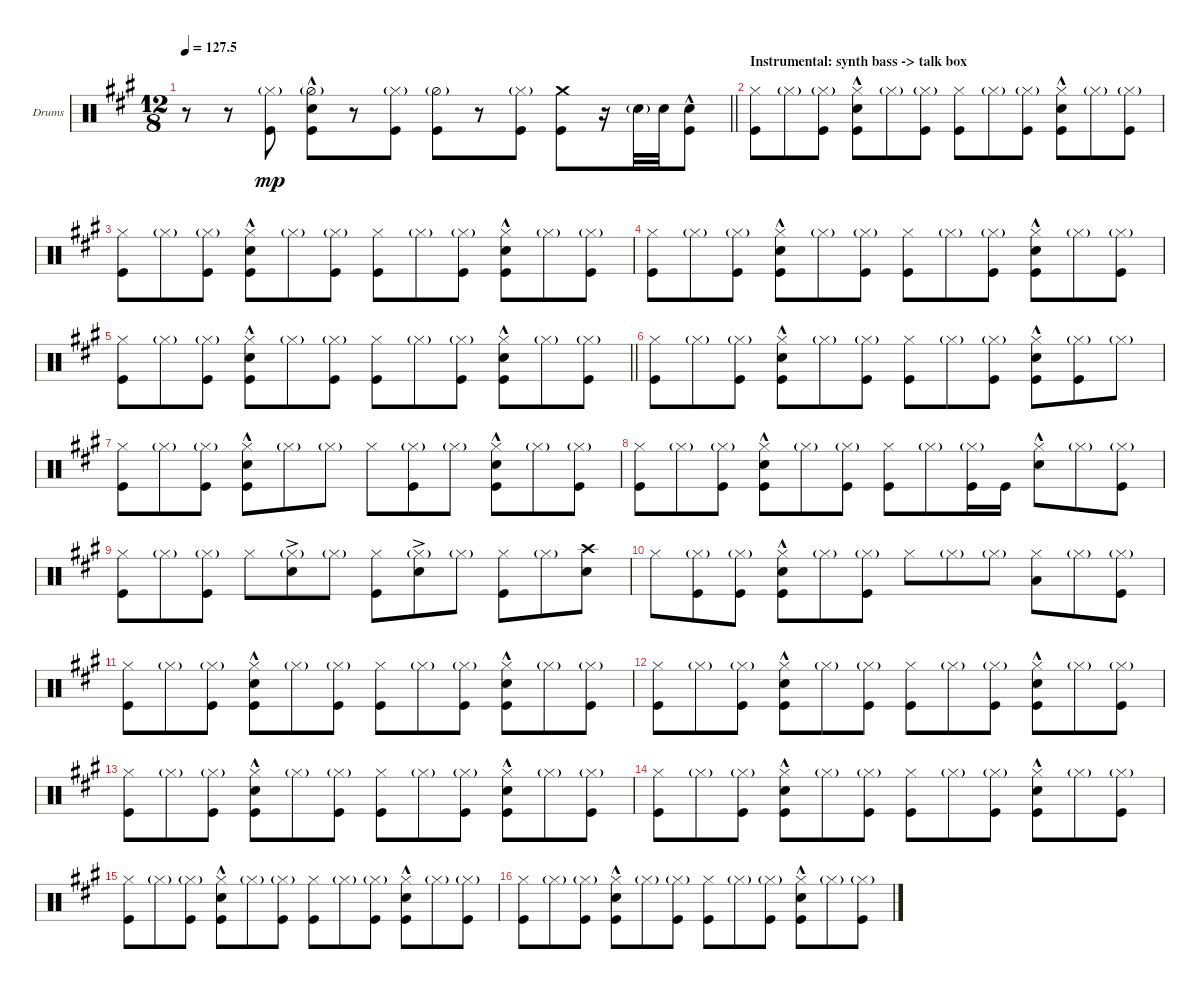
\bracketExtendMode groupsimilarinstruments
\firstSystemTrackNameOrientation horizontal
\otherSystemsTrackNameOrientation horizontal
\track ("Drumkit" "Drums") {instrument percussion}
\staff {score}
\articulation defaults
\ts (12 8)
\tempo
127.5
\accidentals auto
\clef neutral
\ottava regular
\simile none
\scale
0.333333
\barLineRight lightlight
\ks a
r.8{dy mp} r.8 ("Kick (hit)" "Hi-Hat (closed)"{g}).8 ("Kick (hit)" "Hi-Hat (half)"{g} "Snare (hit) 2"{hac}).8 r.8 ("Kick (hit)" "Hi-Hat (closed)"{g}).8 ("Kick (hit)" "Hi-Hat (half)"{g}).8 r.8 ("Kick (hit)" "Hi-Hat (closed)"{g}).8 ("Kick (hit)" "Crash medium (hit)").8 r.16 "Snare (hit) 2"{g}.32 "Snare (hit) 2".32 ("Kick (hit)" "Snare (hit) 2"{hac}).8 |
\section ("" "Instrumental: synth bass -> talk box")
\scale
0.333333 ("Hi-Hat (closed)" "Kick (hit)").8 "Hi-Hat (closed)"{g}.8 ("Hi-Hat (closed)"{g} "Kick (hit)").8 ("Hi-Hat (closed)" "Kick (hit)" "Snare (hit) 2"{hac}).8 "Hi-Hat (closed)"{g}.8 ("Hi-Hat (closed)"{g} "Kick (hit)").8 ("Hi-Hat (closed)" "Kick (hit)").8 "Hi-Hat (closed)"{g}.8 ("Hi-Hat (closed)"{g} "Kick (hit)").8 ("Hi-Hat (closed)" "Kick (hit)" "Snare (hit) 2"{hac}).8 "Hi-Hat (closed)"{g}.8 ("Hi-Hat (closed)"{g} "Kick (hit)").8 |
\scale
0.333333 ("Hi-Hat (closed)" "Kick (hit)").8 "Hi-Hat (closed)"{g}.8 ("Hi-Hat (closed)"{g} "Kick (hit)").8 ("Hi-Hat (closed)" "Kick (hit)" "Snare (hit) 2"{hac}).8 "Hi-Hat (closed)"{g}.8 ("Hi-Hat (closed)"{g} "Kick (hit)").8 ("Hi-Hat (closed)" "Kick (hit)").8 "Hi-Hat (closed)"{g}.8 ("Hi-Hat (closed)"{g} "Kick (hit)").8 ("Hi-Hat (closed)" "Kick (hit)" "Snare (hit) 2"{hac}).8 "Hi-Hat (closed)"{g}.8 ("Hi-Hat (closed)"{g} "Kick (hit)").8 |
\scale
0.333333 ("Hi-Hat (closed)" "Kick (hit)").8 "Hi-Hat (closed)"{g}.8 ("Hi-Hat (closed)"{g} "Kick (hit)").8 ("Hi-Hat (closed)" "Kick (hit)" "Snare (hit) 2"{hac}).8 "Hi-Hat (closed)"{g}.8 ("Hi-Hat (closed)"{g} "Kick (hit)").8 ("Hi-Hat (closed)" "Kick (hit)").8 "Hi-Hat (closed)"{g}.8 ("Hi-Hat (closed)"{g} "Kick (hit)").8 ("Hi-Hat (closed)" "Kick (hit)" "Snare (hit) 2"{hac}).8 "Hi-Hat (closed)"{g}.8 ("Hi-Hat (closed)"{g} "Kick (hit)").8 |
\scale
0.333333
\barLineRight lightlight
("Hi-Hat (closed)" "Kick (hit)").8 "Hi-Hat (closed)"{g}.8 ("Hi-Hat (closed)"{g} "Kick (hit)").8 ("Hi-Hat (closed)" "Kick (hit)" "Snare (hit) 2"{hac}).8 "Hi-Hat (closed)"{g}.8 ("Hi-Hat (closed)"{g} "Kick (hit)").8 ("Hi-Hat (closed)" "Kick (hit)").8 "Hi-Hat (closed)"{g}.8 ("Hi-Hat (closed)"{g} "Kick (hit)").8 ("Hi-Hat (closed)" "Kick (hit)" "Snare (hit) 2"{hac}).8 "Hi-Hat (closed)"{g}.8 ("Hi-Hat (closed)"{g} "Kick (hit)").8 |
\scale
0.333333 ("Hi-Hat (closed)" "Kick (hit)").8 "Hi-Hat (closed)"{g}.8 ("Hi-Hat (closed)"{g} "Kick (hit)").8 ("Hi-Hat (closed)" "Kick (hit)" "Snare (hit) 2"{hac}).8 "Hi-Hat (closed)"{g}.8 ("Hi-Hat (closed)"{g} "Kick (hit)").8 ("Hi-Hat (closed)" "Kick (hit)").8 "Hi-Hat (closed)"{g}.8 ("Hi-Hat (closed)"{g} "Kick (hit)").8 ("Hi-Hat (closed)" "Kick (hit)" "Snare (hit) 2"{hac}).8 ("Hi-Hat (closed)"{g} "Kick (hit)").8 "Hi-Hat (closed)"{g}.8 |
\scale
0.333333 ("Hi-Hat (closed)" "Kick (hit)").8 "Hi-Hat (closed)"{g}.8 ("Hi-Hat (closed)"{g} "Kick (hit)").8 ("Hi-Hat (closed)" "Kick (hit)" "Snare (hit) 2"{hac}).8 "Hi-Hat (closed)"{g}.8 "Hi-Hat (closed)"{g}.8 "Hi-Hat (closed)".8 ("Hi-Hat (closed)"{g} "Kick (hit)").8 "Hi-Hat (closed)"{g}.8 ("Hi-Hat (closed)" "Kick (hit)" "Snare (hit) 2"{hac}).8 "Hi-Hat (closed)"{g}.8 ("Hi-Hat (closed)"{g} "Kick (hit)").8 |
\scale
0.333333 ("Hi-Hat (closed)" "Kick (hit)").8 "Hi-Hat (closed)"{g}.8 ("Hi-Hat (closed)"{g} "Kick (hit)").8 ("Hi-Hat (closed)" "Kick (hit)" "Snare (hit) 2"{hac}).8 "Hi-Hat (closed)"{g}.8 ("Hi-Hat (closed)"{g} "Kick (hit)").8 ("Hi-Hat (closed)" "Kick (hit)").8 "Hi-Hat (closed)"{g}.8 ("Hi-Hat (closed)"{g} "Kick (hit)").16 "Kick (hit)".16 ("Hi-Hat (closed)" "Snare (hit) 2"{hac}).8 "Hi-Hat (closed)"{g}.8 ("Hi-Hat (closed)"{g} "Kick (hit)").8 |
\scale
0.333333 ("Hi-Hat (closed)" "Kick (hit)").8 "Hi-Hat (closed)"{g}.8 ("Hi-Hat (closed)"{g} "Kick (hit)").8 "Hi-Hat (closed)".8 ("Hi-Hat (closed)"{g} "Snare (hit) 2"{ac}).8 "Hi-Hat (closed)"{g}.8 ("Hi-Hat (closed)" "Kick (hit)").8 ("Hi-Hat (closed)"{g} "Snare (hit) 2"{ac}).8 "Hi-Hat (closed)"{g}.8 ("Hi-Hat (closed)" "Kick (hit)").8 "Hi-Hat (closed)"{g}.8 ("Snare (hit) 2" "Crash high (hit)").8 |
\scale
0.333333 "Hi-Hat (closed)".8 ("Hi-Hat (closed)"{g} "Kick (hit)").8 ("Hi-Hat (closed)"{g} "Kick (hit)").8 ("Hi-Hat (closed)" "Kick (hit)" "Snare (hit) 2"{hac}).8 "Hi-Hat (closed)"{g}.8 ("Hi-Hat (closed)"{g} "Kick (hit)").8 "Hi-Hat (closed)".8 "Hi-Hat (closed)"{g}.8 "Hi-Hat (closed)"{g}.8 ("Hi-Hat (closed)" "Low Tom (hit)").8 "Hi-Hat (closed)"{g}.8 ("Hi-Hat (closed)"{g} "Kick (hit)").8 |
\scale
0.333333 ("Hi-Hat (closed)" "Kick (hit)").8 "Hi-Hat (closed)"{g}.8 ("Hi-Hat (closed)"{g} "Kick (hit)").8 ("Hi-Hat (closed)" "Kick (hit)" "Snare (hit) 2"{hac}).8 "Hi-Hat (closed)"{g}.8 ("Hi-Hat (closed)"{g} "Kick (hit)").8 ("Hi-Hat (closed)" "Kick (hit)").8 "Hi-Hat (closed)"{g}.8 ("Hi-Hat (closed)"{g} "Kick (hit)").8 ("Hi-Hat (closed)" "Kick (hit)" "Snare (hit) 2"{hac}).8 "Hi-Hat (closed)"{g}.8 ("Hi-Hat (closed)"{g} "Kick (hit)").8 |
\scale
0.333333 ("Hi-Hat (closed)" "Kick (hit)").8 "Hi-Hat (closed)"{g}.8 ("Hi-Hat (closed)"{g} "Kick (hit)").8 ("Hi-Hat (closed)" "Kick (hit)" "Snare (hit) 2"{hac}).8 "Hi-Hat (closed)"{g}.8 ("Hi-Hat (closed)"{g} "Kick (hit)").8 ("Hi-Hat (closed)" "Kick (hit)").8 "Hi-Hat (closed)"{g}.8 ("Hi-Hat (closed)"{g} "Kick (hit)").8 ("Hi-Hat (closed)" "Kick (hit)" "Snare (hit) 2"{hac}).8 "Hi-Hat (closed)"{g}.8 ("Hi-Hat (closed)"{g} "Kick (hit)").8 |
\scale
0.333333 ("Hi-Hat (closed)" "Kick (hit)").8 "Hi-Hat (closed)"{g}.8 ("Hi-Hat (closed)"{g} "Kick (hit)").8 ("Hi-Hat (closed)" "Kick (hit)" "Snare (hit) 2"{hac}).8 "Hi-Hat (closed)"{g}.8 ("Hi-Hat (closed)"{g} "Kick (hit)").8 ("Hi-Hat (closed)" "Kick (hit)").8 "Hi-Hat (closed)"{g}.8 ("Hi-Hat (closed)"{g} "Kick (hit)").8 ("Hi-Hat (closed)" "Kick (hit)" "Snare (hit) 2"{hac}).8 "Hi-Hat (closed)"{g}.8 ("Hi-Hat (closed)"{g} "Kick (hit)").8 |
\scale
0.333333 ("Hi-Hat (closed)" "Kick (hit)").8 "Hi-Hat (closed)"{g}.8 ("Hi-Hat (closed)"{g} "Kick (hit)").8 ("Hi-Hat (closed)" "Kick (hit)" "Snare (hit) 2"{hac}).8 "Hi-Hat (closed)"{g}.8 ("Hi-Hat (closed)"{g} "Kick (hit)").8 ("Hi-Hat (closed)" "Kick (hit)").8 "Hi-Hat (closed)"{g}.8 ("Hi-Hat (closed)"{g} "Kick (hit)").8 ("Hi-Hat (closed)" "Kick (hit)" "Snare (hit) 2"{hac}).8 "Hi-Hat (closed)"{g}.8 ("Hi-Hat (closed)"{g} "Kick (hit)").8 |
\scale
0.333333 ("Hi-Hat (closed)" "Kick (hit)").8 "Hi-Hat (closed)"{g}.8 ("Hi-Hat (closed)"{g} "Kick (hit)").8 ("Hi-Hat (closed)" "Kick (hit)" "Snare (hit) 2"{hac}).8 "Hi-Hat (closed)"{g}.8 ("Hi-Hat (closed)"{g} "Kick (hit)").8 ("Hi-Hat (closed)" "Kick (hit)").8 "Hi-Hat (closed)"{g}.8 ("Hi-Hat (closed)"{g} "Kick (hit)").8 ("Hi-Hat (closed)" "Kick (hit)" "Snare (hit) 2"{hac}).8 "Hi-Hat (closed)"{g}.8 ("Hi-Hat (closed)"{g} "Kick (hit)").8 |
\scale
0.333333 ("Hi-Hat (closed)" "Kick (hit)").8 "Hi-Hat (closed)"{g}.8 ("Hi-Hat (closed)"{g} "Kick (hit)").8 ("Hi-Hat (closed)" "Kick (hit)" "Snare (hit) 2"{hac}).8 "Hi-Hat (closed)"{g}.8 ("Hi-Hat (closed)"{g} "Kick (hit)").8 ("Hi-Hat (closed)" "Kick (hit)").8 "Hi-Hat (closed)"{g}.8 ("Hi-Hat (closed)"{g} "Kick (hit)").8 ("Hi-Hat (closed)" "Kick (hit)" "Snare (hit) 2"{hac}).8 "Hi-Hat (closed)"{g}.8 ("Hi-Hat (closed)"{g} "Kick (hit)").8
